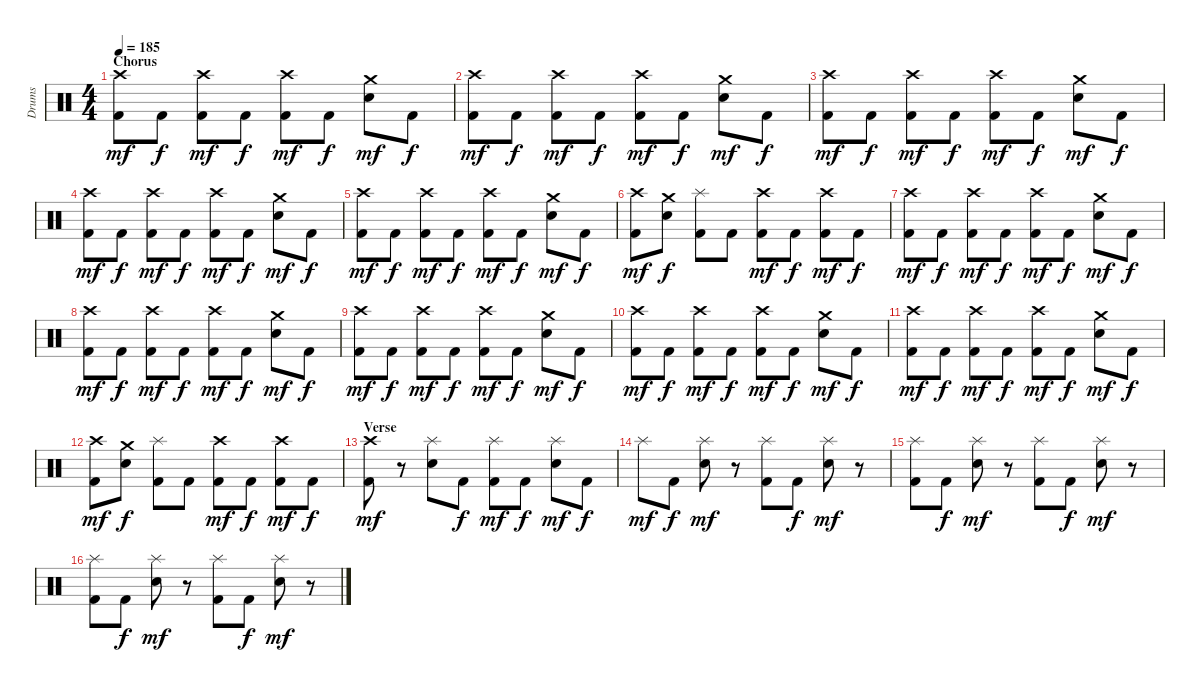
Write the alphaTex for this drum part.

\track ("Drums" "Drums") {instrument percussion}
\staff {score}
\articulation defaults
\ts (4 4)
\section ("" "Chorus")
\tempo 185
\clef neutral
\ks c
("Crash high (hit)" "Kick (hit) 2").8{dy mf} "Kick (hit) 2".8{dy f} ("Crash high (hit)" "Kick (hit) 2").8{dy mf} "Kick (hit) 2".8{dy f} ("Crash high (hit)" "Kick (hit) 2").8{dy mf} "Kick (hit) 2".8{dy f} ("Crash medium (hit)" "Electric Snare (hit)").8{dy mf} "Kick (hit) 2".8{dy f} |
("Crash high (hit)" "Kick (hit) 2").8{dy mf} "Kick (hit) 2".8{dy f} ("Crash high (hit)" "Kick (hit) 2").8{dy mf} "Kick (hit) 2".8{dy f} ("Crash high (hit)" "Kick (hit) 2").8{dy mf} "Kick (hit) 2".8{dy f} ("Crash medium (hit)" "Electric Snare (hit)").8{dy mf} "Kick (hit) 2".8{dy f} |
("Crash high (hit)" "Kick (hit) 2").8{dy mf} "Kick (hit) 2".8{dy f} ("Crash high (hit)" "Kick (hit) 2").8{dy mf} "Kick (hit) 2".8{dy f} ("Crash high (hit)" "Kick (hit) 2").8{dy mf} "Kick (hit) 2".8{dy f} ("Crash medium (hit)" "Electric Snare (hit)").8{dy mf} "Kick (hit) 2".8{dy f} |
("Crash high (hit)" "Kick (hit) 2").8{dy mf} "Kick (hit) 2".8{dy f} ("Crash high (hit)" "Kick (hit) 2").8{dy mf} "Kick (hit) 2".8{dy f} ("Crash high (hit)" "Kick (hit) 2").8{dy mf} "Kick (hit) 2".8{dy f} ("Crash medium (hit)" "Electric Snare (hit)").8{dy mf} "Kick (hit) 2".8{dy f} |
("Crash high (hit)" "Kick (hit) 2").8{dy mf} "Kick (hit) 2".8{dy f} ("Crash high (hit)" "Kick (hit) 2").8{dy mf} "Kick (hit) 2".8{dy f} ("Crash high (hit)" "Kick (hit) 2").8{dy mf} "Kick (hit) 2".8{dy f} ("Crash medium (hit)" "Electric Snare (hit)").8{dy mf} "Kick (hit) 2".8{dy f} |
("Crash high (hit)" "Kick (hit) 2").8{dy mf} ("Crash medium (hit)" "Electric Snare (hit)").8{dy f} ("Splash (hit)" "Kick (hit) 2").8 "Kick (hit) 2".8 ("Crash high (hit)" "Kick (hit) 2").8{dy mf} "Kick (hit) 2".8{dy f} ("Crash high (hit)" "Kick (hit) 2").8{dy mf} "Kick (hit) 2".8{dy f} |
("Crash high (hit)" "Kick (hit) 2").8{dy mf} "Kick (hit) 2".8{dy f} ("Crash high (hit)" "Kick (hit) 2").8{dy mf} "Kick (hit) 2".8{dy f} ("Crash high (hit)" "Kick (hit) 2").8{dy mf} "Kick (hit) 2".8{dy f} ("Crash medium (hit)" "Electric Snare (hit)").8{dy mf} "Kick (hit) 2".8{dy f} |
("Crash high (hit)" "Kick (hit) 2").8{dy mf} "Kick (hit) 2".8{dy f} ("Crash high (hit)" "Kick (hit) 2").8{dy mf} "Kick (hit) 2".8{dy f} ("Crash high (hit)" "Kick (hit) 2").8{dy mf} "Kick (hit) 2".8{dy f} ("Crash medium (hit)" "Electric Snare (hit)").8{dy mf} "Kick (hit) 2".8{dy f} |
("Crash high (hit)" "Kick (hit) 2").8{dy mf} "Kick (hit) 2".8{dy f} ("Crash high (hit)" "Kick (hit) 2").8{dy mf} "Kick (hit) 2".8{dy f} ("Crash high (hit)" "Kick (hit) 2").8{dy mf} "Kick (hit) 2".8{dy f} ("Crash medium (hit)" "Electric Snare (hit)").8{dy mf} "Kick (hit) 2".8{dy f} |
("Crash high (hit)" "Kick (hit) 2").8{dy mf} "Kick (hit) 2".8{dy f} ("Crash high (hit)" "Kick (hit) 2").8{dy mf} "Kick (hit) 2".8{dy f} ("Crash high (hit)" "Kick (hit) 2").8{dy mf} "Kick (hit) 2".8{dy f} ("Crash medium (hit)" "Electric Snare (hit)").8{dy mf} "Kick (hit) 2".8{dy f} |
("Crash high (hit)" "Kick (hit) 2").8{dy mf} "Kick (hit) 2".8{dy f} ("Crash high (hit)" "Kick (hit) 2").8{dy mf} "Kick (hit) 2".8{dy f} ("Crash high (hit)" "Kick (hit) 2").8{dy mf} "Kick (hit) 2".8{dy f} ("Crash medium (hit)" "Electric Snare (hit)").8{dy mf} "Kick (hit) 2".8{dy f} |
("Crash high (hit)" "Kick (hit) 2").8{dy mf} ("Crash medium (hit)" "Electric Snare (hit)").8{dy f} ("Splash (hit)" "Kick (hit) 2").8 "Kick (hit) 2".8 ("Crash high (hit)" "Kick (hit) 2").8{dy mf} "Kick (hit) 2".8{dy f} ("Crash high (hit)" "Kick (hit) 2").8{dy mf} "Kick (hit) 2".8{dy f} |
\section ("" "Verse")
("Crash high (hit)" "Kick (hit) 2").8{dy mf} r.8 ("Splash (hit)" "Electric Snare (hit)").8 "Kick (hit) 2".8{dy f} ("Splash (hit)" "Kick (hit) 2").8{dy mf} "Kick (hit) 2".8{dy f} ("Splash (hit)" "Electric Snare (hit)").8{dy mf} "Kick (hit) 2".8{dy f} |
"Splash (hit)".8{dy mf} "Kick (hit) 2".8{dy f} ("Splash (hit)" "Electric Snare (hit)").8{dy mf} r.8 ("Splash (hit)" "Kick (hit) 2").8 "Kick (hit) 2".8{dy f} ("Splash (hit)" "Electric Snare (hit)").8{dy mf} r.8 |
("Splash (hit)" "Kick (hit) 2").8 "Kick (hit) 2".8{dy f} ("Splash (hit)" "Electric Snare (hit)").8{dy mf} r.8 ("Splash (hit)" "Kick (hit) 2").8 "Kick (hit) 2".8{dy f} ("Splash (hit)" "Electric Snare (hit)").8{dy mf} r.8 |
("Splash (hit)" "Kick (hit) 2").8 "Kick (hit) 2".8{dy f} ("Splash (hit)" "Electric Snare (hit)").8{dy mf} r.8 ("Splash (hit)" "Kick (hit) 2").8 "Kick (hit) 2".8{dy f} ("Splash (hit)" "Electric Snare (hit)").8{dy mf} r.8
